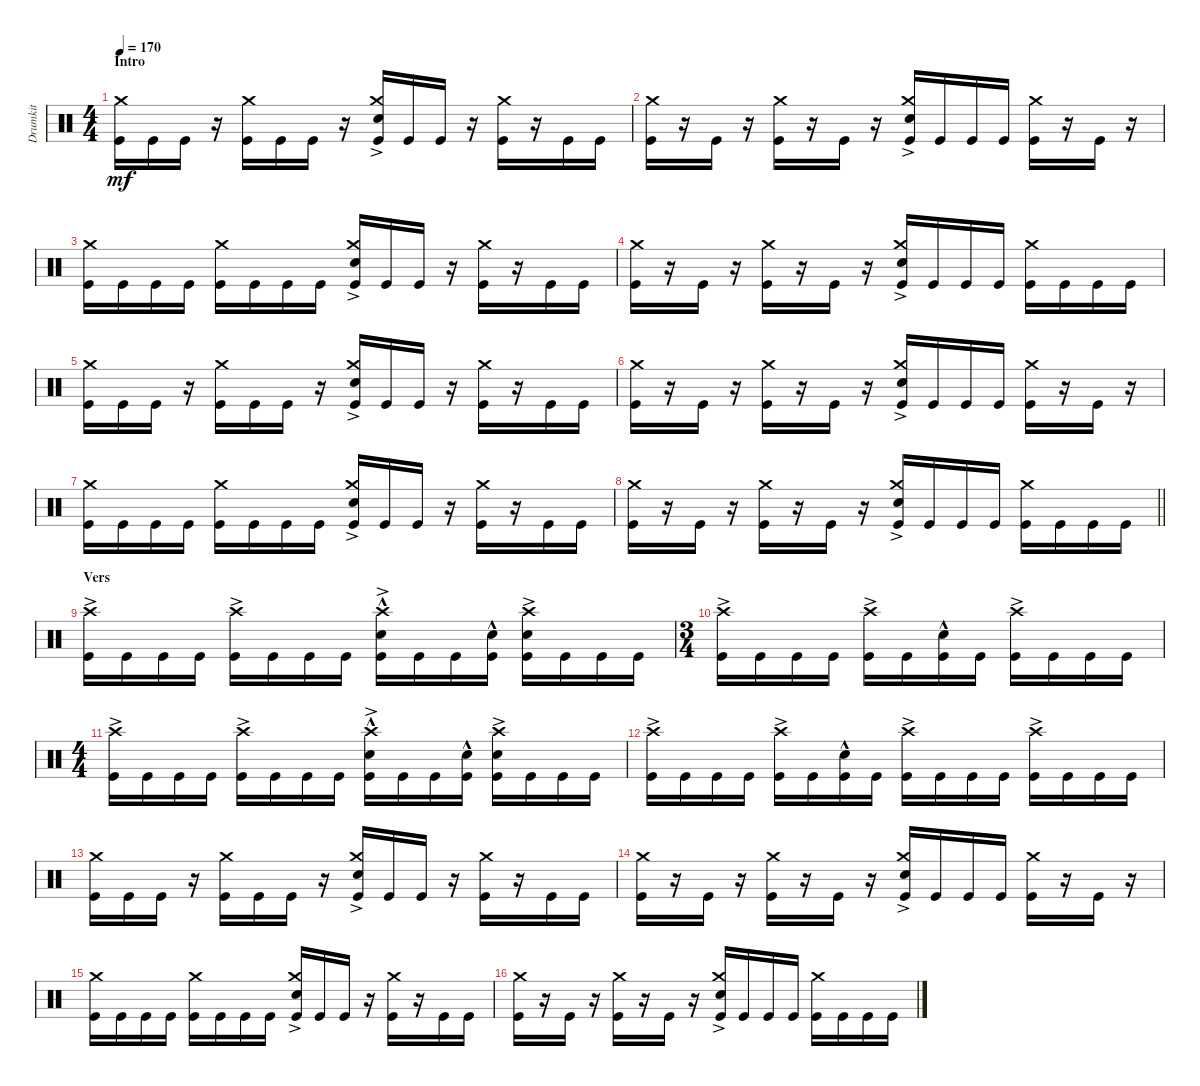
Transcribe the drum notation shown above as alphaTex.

\track ("Drumkit" "Drumkit") {instrument percussion}
\staff {score}
\articulation defaults
\ts (4 4)
\section ("" "Intro")
\tempo 170
\clef neutral
\ks c
("Kick (hit)" "Crash medium (hit)").16{dy mf} "Kick (hit)".16 "Kick (hit)".16 r.16 ("Kick (hit)" "Crash medium (hit)").16 "Kick (hit)".16 "Kick (hit)".16 r.16 ("Snare (hit) 2"{ac} "Kick (hit)" "Crash medium (hit)").16 "Kick (hit)".16 "Kick (hit)".16 r.16 ("Kick (hit)" "Crash medium (hit)").16 r.16 "Kick (hit)".16 "Kick (hit)".16 |
("Kick (hit)" "Crash medium (hit)").16 r.16 "Kick (hit)".16 r.16 ("Kick (hit)" "Crash medium (hit)").16 r.16 "Kick (hit)".16 r.16 ("Kick (hit)" "Snare (hit) 2"{ac} "Crash medium (hit)").16 "Kick (hit)".16 "Kick (hit)".16 "Kick (hit)".16 ("Kick (hit)" "Crash medium (hit)").16 r.16 "Kick (hit)".16 r.16 |
("Kick (hit)" "Crash medium (hit)").16 "Kick (hit)".16 "Kick (hit)".16 "Kick (hit)".16 ("Kick (hit)" "Crash medium (hit)").16 "Kick (hit)".16 "Kick (hit)".16 "Kick (hit)".16 ("Snare (hit) 2"{ac} "Kick (hit)" "Crash medium (hit)").16 "Kick (hit)".16 "Kick (hit)".16 r.16 ("Crash medium (hit)" "Kick (hit)").16 r.16 "Kick (hit)".16 "Kick (hit)".16 |
("Kick (hit)" "Crash medium (hit)").16 r.16 "Kick (hit)".16 r.16 ("Kick (hit)" "Crash medium (hit)").16 r.16 "Kick (hit)".16 r.16 ("Snare (hit) 2"{ac} "Crash medium (hit)" "Kick (hit)").16 "Kick (hit)".16 "Kick (hit)".16 "Kick (hit)".16 ("Kick (hit)" "Crash medium (hit)").16 "Kick (hit)".16 "Kick (hit)".16 "Kick (hit)".16 |
("Kick (hit)" "Crash medium (hit)").16 "Kick (hit)".16 "Kick (hit)".16 r.16 ("Kick (hit)" "Crash medium (hit)").16 "Kick (hit)".16 "Kick (hit)".16 r.16 ("Snare (hit) 2"{ac} "Kick (hit)" "Crash medium (hit)").16 "Kick (hit)".16 "Kick (hit)".16 r.16 ("Kick (hit)" "Crash medium (hit)").16 r.16 "Kick (hit)".16 "Kick (hit)".16 |
("Kick (hit)" "Crash medium (hit)").16 r.16 "Kick (hit)".16 r.16 ("Kick (hit)" "Crash medium (hit)").16 r.16 "Kick (hit)".16 r.16 ("Kick (hit)" "Snare (hit) 2"{ac} "Crash medium (hit)").16 "Kick (hit)".16 "Kick (hit)".16 "Kick (hit)".16 ("Kick (hit)" "Crash medium (hit)").16 r.16 "Kick (hit)".16 r.16 |
("Kick (hit)" "Crash medium (hit)").16 "Kick (hit)".16 "Kick (hit)".16 "Kick (hit)".16 ("Kick (hit)" "Crash medium (hit)").16 "Kick (hit)".16 "Kick (hit)".16 "Kick (hit)".16 ("Snare (hit) 2"{ac} "Kick (hit)" "Crash medium (hit)").16 "Kick (hit)".16 "Kick (hit)".16 r.16 ("Crash medium (hit)" "Kick (hit)").16 r.16 "Kick (hit)".16 "Kick (hit)".16 |
\barLineRight lightlight
("Kick (hit)" "Crash medium (hit)").16 r.16 "Kick (hit)".16 r.16 ("Kick (hit)" "Crash medium (hit)").16 r.16 "Kick (hit)".16 r.16 ("Snare (hit) 2"{ac} "Crash medium (hit)" "Kick (hit)").16 "Kick (hit)".16 "Kick (hit)".16 "Kick (hit)".16 ("Kick (hit)" "Crash medium (hit)").16 "Kick (hit)".16 "Kick (hit)".16 "Kick (hit)".16 |
\section ("" "Vers")
("Kick (hit)" "Crash high (hit)"{ac}).16 "Kick (hit)".16 "Kick (hit)".16 "Kick (hit)".16 ("Kick (hit)" "Crash high (hit)"{ac}).16 "Kick (hit)".16 "Kick (hit)".16 "Kick (hit)".16 ("Snare (hit) 2"{hac} "Kick (hit)" "Crash high (hit)"{ac}).16 "Kick (hit)".16 "Kick (hit)".16 ("Kick (hit)" "Snare (hit) 2"{hac}).16 ("Kick (hit)" "Snare (hit) 2"{ac} "Crash high (hit)"{ac}).16 "Kick (hit)".16 "Kick (hit)".16 "Kick (hit)".16 |
\ts (3 4)
("Kick (hit)" "Crash high (hit)"{ac}).16 "Kick (hit)".16 "Kick (hit)".16 "Kick (hit)".16 ("Kick (hit)" "Crash high (hit)"{ac}).16 "Kick (hit)".16 ("Kick (hit)" "Snare (hit) 2"{hac}).16 "Kick (hit)".16 ("Kick (hit)" "Crash high (hit)"{ac}).16 "Kick (hit)".16 "Kick (hit)".16 "Kick (hit)".16 |
\ts (4 4)
("Kick (hit)" "Crash high (hit)"{ac}).16 "Kick (hit)".16 "Kick (hit)".16 "Kick (hit)".16 ("Kick (hit)" "Crash high (hit)"{ac}).16 "Kick (hit)".16 "Kick (hit)".16 "Kick (hit)".16 ("Snare (hit) 2"{hac} "Kick (hit)" "Crash high (hit)"{ac}).16 "Kick (hit)".16 "Kick (hit)".16 ("Kick (hit)" "Snare (hit) 2"{hac}).16 ("Kick (hit)" "Snare (hit) 2"{ac} "Crash high (hit)"{ac}).16 "Kick (hit)".16 "Kick (hit)".16 "Kick (hit)".16 |
("Kick (hit)" "Crash high (hit)"{ac}).16 "Kick (hit)".16 "Kick (hit)".16 "Kick (hit)".16 ("Kick (hit)" "Crash high (hit)"{ac}).16 "Kick (hit)".16 ("Kick (hit)" "Snare (hit) 2"{hac}).16 "Kick (hit)".16 ("Kick (hit)" "Crash high (hit)"{ac}).16 "Kick (hit)".16 "Kick (hit)".16 "Kick (hit)".16 ("Kick (hit)" "Crash high (hit)"{ac}).16 "Kick (hit)".16 "Kick (hit)".16 "Kick (hit)".16 |
("Kick (hit)" "Crash medium (hit)").16 "Kick (hit)".16 "Kick (hit)".16 r.16 ("Kick (hit)" "Crash medium (hit)").16 "Kick (hit)".16 "Kick (hit)".16 r.16 ("Snare (hit) 2"{ac} "Kick (hit)" "Crash medium (hit)").16 "Kick (hit)".16 "Kick (hit)".16 r.16 ("Kick (hit)" "Crash medium (hit)").16 r.16 "Kick (hit)".16 "Kick (hit)".16 |
("Kick (hit)" "Crash medium (hit)").16 r.16 "Kick (hit)".16 r.16 ("Kick (hit)" "Crash medium (hit)").16 r.16 "Kick (hit)".16 r.16 ("Kick (hit)" "Snare (hit) 2"{ac} "Crash medium (hit)").16 "Kick (hit)".16 "Kick (hit)".16 "Kick (hit)".16 ("Kick (hit)" "Crash medium (hit)").16 r.16 "Kick (hit)".16 r.16 |
("Kick (hit)" "Crash medium (hit)").16 "Kick (hit)".16 "Kick (hit)".16 "Kick (hit)".16 ("Kick (hit)" "Crash medium (hit)").16 "Kick (hit)".16 "Kick (hit)".16 "Kick (hit)".16 ("Snare (hit) 2"{ac} "Kick (hit)" "Crash medium (hit)").16 "Kick (hit)".16 "Kick (hit)".16 r.16 ("Crash medium (hit)" "Kick (hit)").16 r.16 "Kick (hit)".16 "Kick (hit)".16 |
("Kick (hit)" "Crash medium (hit)").16 r.16 "Kick (hit)".16 r.16 ("Kick (hit)" "Crash medium (hit)").16 r.16 "Kick (hit)".16 r.16 ("Snare (hit) 2"{ac} "Crash medium (hit)" "Kick (hit)").16 "Kick (hit)".16 "Kick (hit)".16 "Kick (hit)".16 ("Kick (hit)" "Crash medium (hit)").16 "Kick (hit)".16 "Kick (hit)".16 "Kick (hit)".16
